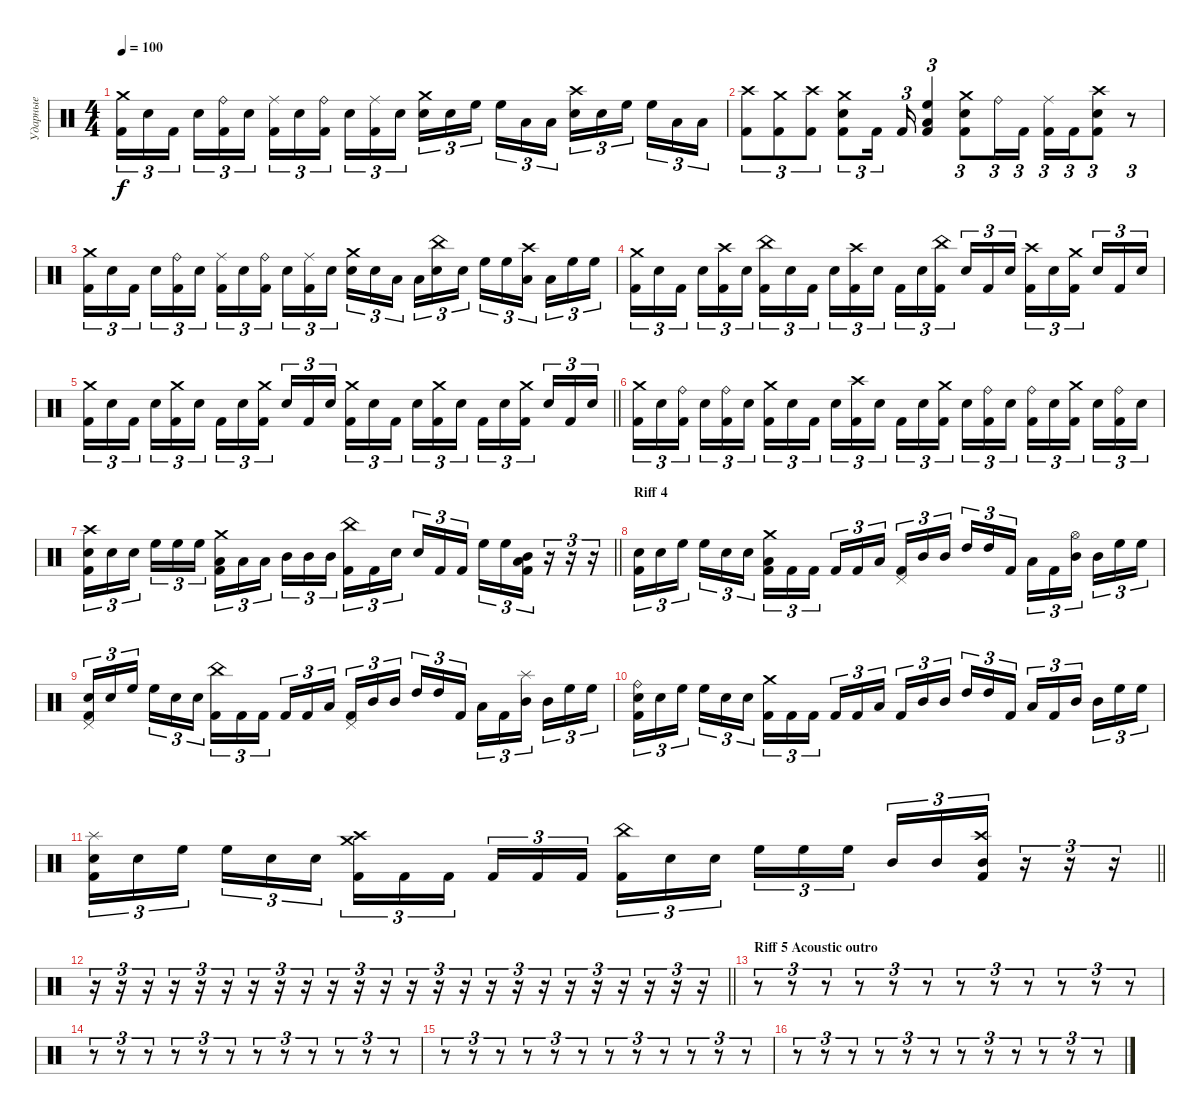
\track ("Ударные" "Ударные") {instrument percussion}
\staff {score}
\articulation defaults
\ts (4 4)
\tempo 100
\clef neutral
\ks c
("Crash medium (hit)" "Kick (hit) 2").16{tu (3 2) dy f} "Electric Snare (hit)".16{tu (3 2)} "Kick (hit) 2".16{tu (3 2) beam splitsecondary} "Electric Snare (hit)".16{tu (3 2)} ("Ride (bell)" "Kick (hit) 2").16{tu (3 2)} "Electric Snare (hit)".16{tu (3 2)} ("Ride (middle)" "Kick (hit) 2").16{tu (3 2)} "Electric Snare (hit)".16{tu (3 2)} ("Ride (bell)" "Kick (hit) 2").16{tu (3 2) beam splitsecondary} "Electric Snare (hit)".16{tu (3 2)} ("Ride (middle)" "Kick (hit) 2").16{tu (3 2)} "Electric Snare (hit)".16{tu (3 2)} ("Crash medium (hit)" "Electric Snare (hit)").16{tu (3 2)} "Electric Snare (hit)".16{tu (3 2)} "High Floor Tom (hit)".16{tu (3 2) beam splitsecondary} "High Floor Tom (hit)".16{tu (3 2)} "Low Tom (hit)".16{tu (3 2)} "Low Tom (hit)".16{tu (3 2)} ("Crash high (hit)" "Electric Snare (hit)").16{tu (3 2)} "Electric Snare (hit)".16{tu (3 2)} "High Floor Tom (hit)".16{tu (3 2) beam splitsecondary} "High Floor Tom (hit)".16{tu (3 2)} "Low Tom (hit)".16{tu (3 2)} "Low Tom (hit)".16{tu (3 2)} |
("Crash high (hit)" "Kick (hit) 2").8{tu (3 2)} ("Crash medium (hit)" "Kick (hit) 2").8{tu (3 2)} ("Crash high (hit)" "Kick (hit) 2").8{tu (3 2)} ("Crash medium (hit)" "Electric Snare (hit)" "Kick (hit) 2").8{tu (3 2)} "Kick (hit) 2".16{tu (3 2)} "Kick (hit) 2".16{tu (3 2)} ("High Floor Tom (hit)" "Low Tom (hit)" "Kick (hit) 2").4{tu (3 2)} ("Crash medium (hit)" "Electric Snare (hit)" "Kick (hit) 2").8{tu (3 2)} "Ride (bell)".16{tu (3 2)} "Kick (hit) 2".16{tu (3 2)} ("Ride (middle)" "Kick (hit) 2").16{tu (3 2)} "Kick (hit) 2".16{tu (3 2)} ("Crash high (hit)" "Electric Snare (hit)" "Kick (hit) 2").8{tu (3 2)} r.8{tu (3 2)} |
("Crash medium (hit)" "Kick (hit) 2").16{tu (3 2)} "Electric Snare (hit)".16{tu (3 2)} "Kick (hit) 2".16{tu (3 2) beam splitsecondary} "Electric Snare (hit)".16{tu (3 2)} ("Ride (bell)" "Kick (hit) 2").16{tu (3 2)} "Electric Snare (hit)".16{tu (3 2)} ("Ride (middle)" "Kick (hit) 2").16{tu (3 2)} "Electric Snare (hit)".16{tu (3 2)} ("Ride (bell)" "Kick (hit) 2").16{tu (3 2) beam splitsecondary} "Electric Snare (hit)".16{tu (3 2)} ("Ride (middle)" "Kick (hit) 2").16{tu (3 2)} "Electric Snare (hit)".16{tu (3 2)} ("Crash medium (hit)" "Electric Snare (hit)").16{tu (3 2)} "Electric Snare (hit)".16{tu (3 2)} "Low Tom (hit)".16{tu (3 2) beam splitsecondary} "Low Tom (hit)".16{tu (3 2)} ("China (hit)" "Electric Snare (hit)").16{tu (3 2)} "Electric Snare (hit)".16{tu (3 2)} "High Floor Tom (hit)".16{tu (3 2)} "High Floor Tom (hit)".16{tu (3 2)} ("Crash high (hit)" "Low Tom (hit)").16{tu (3 2) beam splitsecondary} "Low Tom (hit)".16{tu (3 2)} "High Floor Tom (hit)".16{tu (3 2)} "High Floor Tom (hit)".16{tu (3 2)} |
("Crash medium (hit)" "Kick (hit) 2").16{tu (3 2)} "Electric Snare (hit)".16{tu (3 2)} "Kick (hit) 2".16{tu (3 2) beam splitsecondary} "Electric Snare (hit)".16{tu (3 2)} ("Crash high (hit)" "Kick (hit) 2").16{tu (3 2)} "Electric Snare (hit)".16{tu (3 2)} ("China (hit)" "Kick (hit) 2").16{tu (3 2)} "Electric Snare (hit)".16{tu (3 2)} "Kick (hit) 2".16{tu (3 2) beam splitsecondary} "Electric Snare (hit)".16{tu (3 2)} ("Crash high (hit)" "Kick (hit) 2").16{tu (3 2)} "Electric Snare (hit)".16{tu (3 2)} "Kick (hit) 2".16{tu (3 2)} "Electric Snare (hit)".16{tu (3 2)} ("China (hit)" "Kick (hit) 2").16{tu (3 2) beam splitsecondary} "Electric Snare (hit)".16{tu (3 2)} "Kick (hit) 2".16{tu (3 2)} "Electric Snare (hit)".16{tu (3 2)} ("Crash high (hit)" "Kick (hit) 2").16{tu (3 2)} "Electric Snare (hit)".16{tu (3 2)} ("Crash medium (hit)" "Kick (hit) 2").16{tu (3 2) beam splitsecondary} "Electric Snare (hit)".16{tu (3 2)} "Kick (hit) 2".16{tu (3 2)} "Electric Snare (hit)".16{tu (3 2)} |
\barLineRight lightlight
("Crash medium (hit)" "Kick (hit) 2").16{tu (3 2)} "Electric Snare (hit)".16{tu (3 2)} "Kick (hit) 2".16{tu (3 2) beam splitsecondary} "Electric Snare (hit)".16{tu (3 2)} ("Crash medium (hit)" "Kick (hit) 2").16{tu (3 2)} "Electric Snare (hit)".16{tu (3 2)} "Kick (hit) 2".16{tu (3 2)} "Electric Snare (hit)".16{tu (3 2)} ("Crash medium (hit)" "Kick (hit) 2").16{tu (3 2) beam splitsecondary} "Electric Snare (hit)".16{tu (3 2)} "Kick (hit) 2".16{tu (3 2)} "Electric Snare (hit)".16{tu (3 2)} ("Crash medium (hit)" "Kick (hit) 2").16{tu (3 2)} "Electric Snare (hit)".16{tu (3 2)} "Kick (hit) 2".16{tu (3 2) beam splitsecondary} "Electric Snare (hit)".16{tu (3 2)} ("Crash medium (hit)" "Kick (hit) 2").16{tu (3 2)} "Electric Snare (hit)".16{tu (3 2)} "Kick (hit) 2".16{tu (3 2)} "Electric Snare (hit)".16{tu (3 2)} ("Crash medium (hit)" "Kick (hit) 2").16{tu (3 2) beam splitsecondary} "Electric Snare (hit)".16{tu (3 2)} "Kick (hit) 2".16{tu (3 2)} "Electric Snare (hit)".16{tu (3 2)} |
("Crash medium (hit)" "Kick (hit) 2").16{tu (3 2)} "Electric Snare (hit)".16{tu (3 2)} ("Ride (bell)" "Kick (hit) 2").16{tu (3 2) beam splitsecondary} "Electric Snare (hit)".16{tu (3 2)} ("Ride (bell)" "Kick (hit) 2").16{tu (3 2)} "Electric Snare (hit)".16{tu (3 2)} ("Crash medium (hit)" "Kick (hit) 2").16{tu (3 2)} "Electric Snare (hit)".16{tu (3 2)} "Kick (hit) 2".16{tu (3 2) beam splitsecondary} "Electric Snare (hit)".16{tu (3 2)} ("Crash high (hit)" "Kick (hit) 2").16{tu (3 2)} "Electric Snare (hit)".16{tu (3 2)} "Kick (hit) 2".16{tu (3 2)} "Electric Snare (hit)".16{tu (3 2)} ("Crash medium (hit)" "Kick (hit) 2").16{tu (3 2) beam splitsecondary} "Electric Snare (hit)".16{tu (3 2)} ("Ride (bell)" "Kick (hit) 2").16{tu (3 2)} "Electric Snare (hit)".16{tu (3 2)} ("Ride (bell)" "Kick (hit) 2").16{tu (3 2)} "Electric Snare (hit)".16{tu (3 2)} ("Crash medium (hit)" "Kick (hit) 2").16{tu (3 2) beam splitsecondary} "Electric Snare (hit)".16{tu (3 2)} ("Ride (bell)" "Kick (hit) 2").16{tu (3 2)} "Electric Snare (hit)".16{tu (3 2)} |
\barLineRight lightlight
("Crash high (hit)" "Electric Snare (hit)" "Kick (hit) 2").16{tu (3 2)} "Electric Snare (hit)".16{tu (3 2)} "Electric Snare (hit)".16{tu (3 2) beam splitsecondary} "High Floor Tom (hit)".16{tu (3 2)} "High Floor Tom (hit)".16{tu (3 2)} "High Floor Tom (hit)".16{tu (3 2)} ("Crash medium (hit)" "Low Tom (hit)" "Kick (hit) 2").16{tu (3 2)} "Low Tom (hit)".16{tu (3 2)} "Low Tom (hit)".16{tu (3 2) beam splitsecondary} "Mid Tom (hit)".16{tu (3 2)} "Mid Tom (hit)".16{tu (3 2)} "Mid Tom (hit)".16{tu (3 2)} ("China (hit)" "Kick (hit) 2").16{tu (3 2)} "Kick (hit) 2".16{tu (3 2)} "Electric Snare (hit)".16{tu (3 2) beam splitsecondary} "Electric Snare (hit)".16{tu (3 2)} "Kick (hit) 2".16{tu (3 2)} "Kick (hit) 2".16{tu (3 2)} "High Floor Tom (hit)".16{tu (3 2)} "High Floor Tom (hit)".16{tu (3 2)} ("Mid Tom (hit)" "Low Tom (hit)" "Kick (hit) 2").16{tu (3 2)} r.16{tu (3 2)} r.16{tu (3 2)} r.16{tu (3 2)} |
\section ("" "Riff 4")
("Electric Snare (hit)" "Kick (hit) 2").16{tu (3 2)} "Electric Snare (hit)".16{tu (3 2)} "High Floor Tom (hit)".16{tu (3 2) beam splitsecondary} "High Floor Tom (hit)".16{tu (3 2)} "Electric Snare (hit)".16{tu (3 2)} "Electric Snare (hit)".16{tu (3 2)} ("Crash medium (hit)" "Low Tom (hit)" "Kick (hit) 2").16{tu (3 2)} "Kick (hit) 2".16{tu (3 2)} "Kick (hit) 2".16{tu (3 2) beam splitsecondary} "Kick (hit) 2".16{tu (3 2)} "Kick (hit) 2".16{tu (3 2)} "Low Tom (hit)".16{tu (3 2)} ("Pedal Hi-Hat (hit)" "Kick (hit) 2").16{tu (3 2)} "Mid Tom (hit)".16{tu (3 2)} "Mid Tom (hit)".16{tu (3 2) beam splitsecondary} "High Tom (hit)".16{tu (3 2)} "High Tom (hit)".16{tu (3 2)} "Kick (hit) 2".16{tu (3 2)} "Low Tom (hit)".16{tu (3 2)} "Kick (hit) 2".16{tu (3 2)} ("Hi-Hat (open)" "Mid Tom (hit)").16{tu (3 2) beam splitsecondary} "Mid Tom (hit)".16{tu (3 2)} "High Floor Tom (hit)".16{tu (3 2)} "High Floor Tom (hit)".16{tu (3 2)} |
("Pedal Hi-Hat (hit)" "Electric Snare (hit)" "Kick (hit) 2").16{tu (3 2)} "Electric Snare (hit)".16{tu (3 2)} "High Floor Tom (hit)".16{tu (3 2) beam splitsecondary} "High Floor Tom (hit)".16{tu (3 2)} "Electric Snare (hit)".16{tu (3 2)} "Electric Snare (hit)".16{tu (3 2)} ("China (hit)" "Kick (hit) 2").16{tu (3 2)} "Kick (hit) 2".16{tu (3 2)} "Kick (hit) 2".16{tu (3 2) beam splitsecondary} "Kick (hit) 2".16{tu (3 2)} "Kick (hit) 2".16{tu (3 2)} "Low Tom (hit)".16{tu (3 2)} ("Pedal Hi-Hat (hit)" "Kick (hit) 2").16{tu (3 2)} "Mid Tom (hit)".16{tu (3 2)} "Mid Tom (hit)".16{tu (3 2) beam splitsecondary} "High Tom (hit)".16{tu (3 2)} "High Tom (hit)".16{tu (3 2)} "Kick (hit) 2".16{tu (3 2)} "Low Tom (hit)".16{tu (3 2)} "Kick (hit) 2".16{tu (3 2)} ("Splash (hit)" "Mid Tom (hit)").16{tu (3 2) beam splitsecondary} "Mid Tom (hit)".16{tu (3 2)} "High Floor Tom (hit)".16{tu (3 2)} "High Floor Tom (hit)".16{tu (3 2)} |
("Ride (bell)" "Electric Snare (hit)" "Kick (hit) 2").16{tu (3 2)} "Electric Snare (hit)".16{tu (3 2)} "High Floor Tom (hit)".16{tu (3 2) beam splitsecondary} "High Floor Tom (hit)".16{tu (3 2)} "Electric Snare (hit)".16{tu (3 2)} "Electric Snare (hit)".16{tu (3 2)} ("Crash medium (hit)" "Kick (hit) 2").16{tu (3 2)} "Kick (hit) 2".16{tu (3 2)} "Kick (hit) 2".16{tu (3 2) beam splitsecondary} "Kick (hit) 2".16{tu (3 2)} "Kick (hit) 2".16{tu (3 2)} "Low Tom (hit)".16{tu (3 2)} "Kick (hit) 2".16{tu (3 2)} "Mid Tom (hit)".16{tu (3 2)} "Mid Tom (hit)".16{tu (3 2) beam splitsecondary} "High Tom (hit)".16{tu (3 2)} "High Tom (hit)".16{tu (3 2)} "Kick (hit) 2".16{tu (3 2)} "Low Tom (hit)".16{tu (3 2)} "Kick (hit) 2".16{tu (3 2)} "Mid Tom (hit)".16{tu (3 2) beam splitsecondary} "Mid Tom (hit)".16{tu (3 2)} "High Floor Tom (hit)".16{tu (3 2)} "High Floor Tom (hit)".16{tu (3 2)} |
\barLineRight lightlight
("Splash (hit)" "Electric Snare (hit)" "Kick (hit) 2").16{tu (3 2)} "Electric Snare (hit)".16{tu (3 2)} "High Floor Tom (hit)".16{tu (3 2) beam splitsecondary} "High Floor Tom (hit)".16{tu (3 2)} "Electric Snare (hit)".16{tu (3 2)} "Electric Snare (hit)".16{tu (3 2)} ("Crash medium (hit)" "Crash high (hit)" "Kick (hit) 2").16{tu (3 2)} "Kick (hit) 2".16{tu (3 2)} "Kick (hit) 2".16{tu (3 2) beam splitsecondary} "Kick (hit) 2".16{tu (3 2)} "Kick (hit) 2".16{tu (3 2)} "Kick (hit) 2".16{tu (3 2)} ("China (hit)" "Kick (hit) 2").16{tu (3 2)} "Electric Snare (hit)".16{tu (3 2)} "Electric Snare (hit)".16{tu (3 2) beam splitsecondary} "High Floor Tom (hit)".16{tu (3 2)} "High Floor Tom (hit)".16{tu (3 2)} "High Floor Tom (hit)".16{tu (3 2)} "Mid Tom (hit)".16{tu (3 2)} "Mid Tom (hit)".16{tu (3 2)} ("Crash high (hit)" "Mid Tom (hit)" "Kick (hit) 2").16{tu (3 2)} r.16{tu (3 2)} r.16{tu (3 2)} r.16{tu (3 2)} |
\barLineRight lightlight
r.16{tu (3 2)} r.16{tu (3 2)} r.16{tu (3 2)} r.16{tu (3 2)} r.16{tu (3 2)} r.16{tu (3 2)} r.16{tu (3 2)} r.16{tu (3 2)} r.16{tu (3 2)} r.16{tu (3 2)} r.16{tu (3 2)} r.16{tu (3 2)} r.16{tu (3 2)} r.16{tu (3 2)} r.16{tu (3 2)} r.16{tu (3 2)} r.16{tu (3 2)} r.16{tu (3 2)} r.16{tu (3 2)} r.16{tu (3 2)} r.16{tu (3 2)} r.16{tu (3 2)} r.16{tu (3 2)} r.16{tu (3 2)} |
\section ("" "Riff 5 Acoustic outro")
r.8{tu (3 2)} r.8{tu (3 2)} r.8{tu (3 2)} r.8{tu (3 2)} r.8{tu (3 2)} r.8{tu (3 2)} r.8{tu (3 2)} r.8{tu (3 2)} r.8{tu (3 2)} r.8{tu (3 2)} r.8{tu (3 2)} r.8{tu (3 2)} |
r.8{tu (3 2)} r.8{tu (3 2)} r.8{tu (3 2)} r.8{tu (3 2)} r.8{tu (3 2)} r.8{tu (3 2)} r.8{tu (3 2)} r.8{tu (3 2)} r.8{tu (3 2)} r.8{tu (3 2)} r.8{tu (3 2)} r.8{tu (3 2)} |
r.8{tu (3 2)} r.8{tu (3 2)} r.8{tu (3 2)} r.8{tu (3 2)} r.8{tu (3 2)} r.8{tu (3 2)} r.8{tu (3 2)} r.8{tu (3 2)} r.8{tu (3 2)} r.8{tu (3 2)} r.8{tu (3 2)} r.8{tu (3 2)} |
r.8{tu (3 2)} r.8{tu (3 2)} r.8{tu (3 2)} r.8{tu (3 2)} r.8{tu (3 2)} r.8{tu (3 2)} r.8{tu (3 2)} r.8{tu (3 2)} r.8{tu (3 2)} r.8{tu (3 2)} r.8{tu (3 2)} r.8{tu (3 2)}
